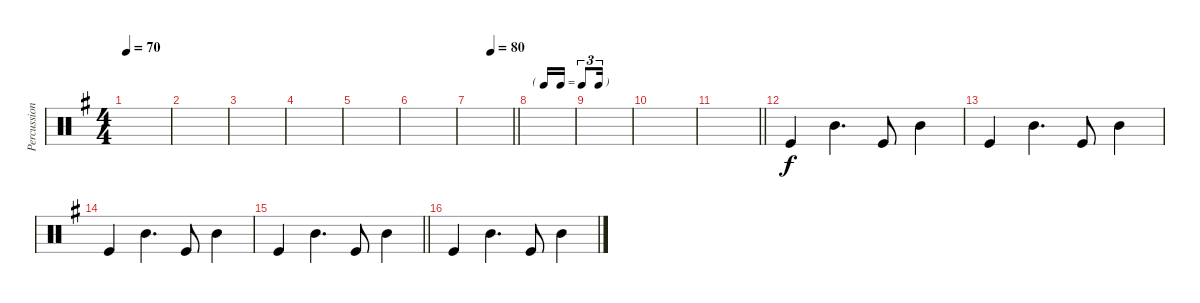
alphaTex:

\track ("Percussion" "Percussion") {instrument percussion}
\staff {score}
\articulation defaults
\ts (4 4)
\tempo 70
\clef neutral
\ks eminor
|
|
|
|
|
|
\tempo (80 0.5)
\barLineRight lightlight
|
\tf triplet16th
|
|
|
\barLineRight lightlight
|
"Kick (hit)".4 "Mid Tom (hit)".4{d} "Kick (hit)".8 "Mid Tom (hit)".4 |
"Kick (hit)".4 "Mid Tom (hit)".4{d} "Kick (hit)".8 "Mid Tom (hit)".4 |
"Kick (hit)".4 "Mid Tom (hit)".4{d} "Kick (hit)".8 "Mid Tom (hit)".4 |
\barLineRight lightlight "Kick (hit)".4 "Mid Tom (hit)".4{d} "Kick (hit)".8 "Mid Tom (hit)".4
|
"Kick (hit)".4 "Mid Tom (hit)".4{d} "Kick (hit)".8 "Mid Tom (hit)".4
